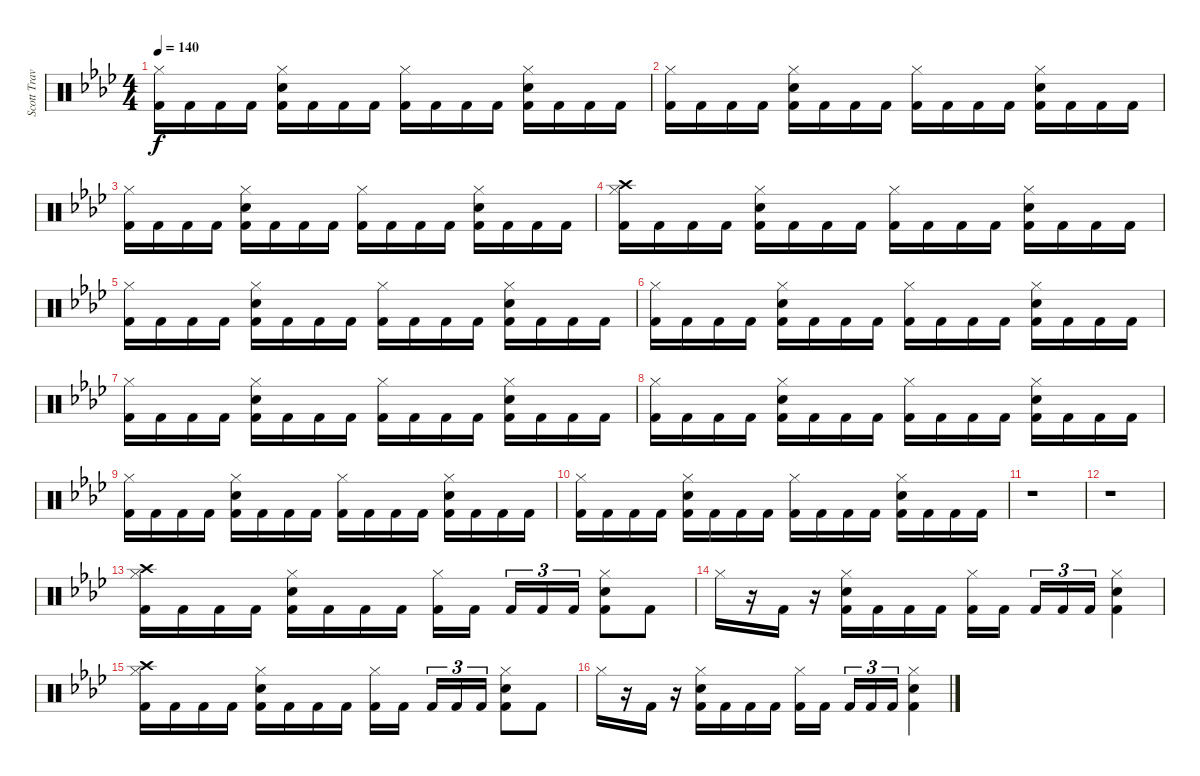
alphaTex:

\track ("Scott Travis" "Scott Trav") {instrument percussion}
\staff {score}
\articulation defaults
\ts (4 4)
\tempo 140
\clef neutral
\ks fminor
("Hi-Hat (closed)" "Kick (hit) 2").16{dy f} "Kick (hit) 2".16 "Kick (hit) 2".16 "Kick (hit) 2".16 ("Hi-Hat (closed)" "Electric Snare (hit)" "Kick (hit) 2").16 "Kick (hit) 2".16 "Kick (hit) 2".16 "Kick (hit) 2".16 ("Hi-Hat (closed)" "Kick (hit) 2").16 "Kick (hit) 2".16 "Kick (hit) 2".16 "Kick (hit) 2".16 ("Hi-Hat (closed)" "Electric Snare (hit)" "Kick (hit) 2").16 "Kick (hit) 2".16 "Kick (hit) 2".16 "Kick (hit) 2".16 |
("Hi-Hat (closed)" "Kick (hit) 2").16 "Kick (hit) 2".16 "Kick (hit) 2".16 "Kick (hit) 2".16 ("Hi-Hat (closed)" "Electric Snare (hit)" "Kick (hit) 2").16 "Kick (hit) 2".16 "Kick (hit) 2".16 "Kick (hit) 2".16 ("Hi-Hat (closed)" "Kick (hit) 2").16 "Kick (hit) 2".16 "Kick (hit) 2".16 "Kick (hit) 2".16 ("Hi-Hat (closed)" "Electric Snare (hit)" "Kick (hit) 2").16 "Kick (hit) 2".16 "Kick (hit) 2".16 "Kick (hit) 2".16 |
("Hi-Hat (closed)" "Kick (hit) 2").16 "Kick (hit) 2".16 "Kick (hit) 2".16 "Kick (hit) 2".16 ("Hi-Hat (closed)" "Electric Snare (hit)" "Kick (hit) 2").16 "Kick (hit) 2".16 "Kick (hit) 2".16 "Kick (hit) 2".16 ("Hi-Hat (closed)" "Kick (hit) 2").16 "Kick (hit) 2".16 "Kick (hit) 2".16 "Kick (hit) 2".16 ("Hi-Hat (closed)" "Electric Snare (hit)" "Kick (hit) 2").16 "Kick (hit) 2".16 "Kick (hit) 2".16 "Kick (hit) 2".16 |
("Crash high (hit)" "Hi-Hat (closed)" "Kick (hit) 2").16 "Kick (hit) 2".16 "Kick (hit) 2".16 "Kick (hit) 2".16 ("Hi-Hat (closed)" "Electric Snare (hit)" "Kick (hit) 2").16 "Kick (hit) 2".16 "Kick (hit) 2".16 "Kick (hit) 2".16 ("Hi-Hat (closed)" "Kick (hit) 2").16 "Kick (hit) 2".16 "Kick (hit) 2".16 "Kick (hit) 2".16 ("Hi-Hat (closed)" "Electric Snare (hit)" "Kick (hit) 2").16 "Kick (hit) 2".16 "Kick (hit) 2".16 "Kick (hit) 2".16 |
("Hi-Hat (closed)" "Kick (hit) 2").16 "Kick (hit) 2".16 "Kick (hit) 2".16 "Kick (hit) 2".16 ("Hi-Hat (closed)" "Electric Snare (hit)" "Kick (hit) 2").16 "Kick (hit) 2".16 "Kick (hit) 2".16 "Kick (hit) 2".16 ("Hi-Hat (closed)" "Kick (hit) 2").16 "Kick (hit) 2".16 "Kick (hit) 2".16 "Kick (hit) 2".16 ("Hi-Hat (closed)" "Electric Snare (hit)" "Kick (hit) 2").16 "Kick (hit) 2".16 "Kick (hit) 2".16 "Kick (hit) 2".16 |
("Hi-Hat (closed)" "Kick (hit) 2").16 "Kick (hit) 2".16 "Kick (hit) 2".16 "Kick (hit) 2".16 ("Hi-Hat (closed)" "Electric Snare (hit)" "Kick (hit) 2").16 "Kick (hit) 2".16 "Kick (hit) 2".16 "Kick (hit) 2".16 ("Hi-Hat (closed)" "Kick (hit) 2").16 "Kick (hit) 2".16 "Kick (hit) 2".16 "Kick (hit) 2".16 ("Hi-Hat (closed)" "Electric Snare (hit)" "Kick (hit) 2").16 "Kick (hit) 2".16 "Kick (hit) 2".16 "Kick (hit) 2".16 |
("Hi-Hat (closed)" "Kick (hit) 2").16 "Kick (hit) 2".16 "Kick (hit) 2".16 "Kick (hit) 2".16 ("Hi-Hat (closed)" "Electric Snare (hit)" "Kick (hit) 2").16 "Kick (hit) 2".16 "Kick (hit) 2".16 "Kick (hit) 2".16 ("Hi-Hat (closed)" "Kick (hit) 2").16 "Kick (hit) 2".16 "Kick (hit) 2".16 "Kick (hit) 2".16 ("Hi-Hat (closed)" "Electric Snare (hit)" "Kick (hit) 2").16 "Kick (hit) 2".16 "Kick (hit) 2".16 "Kick (hit) 2".16 |
("Hi-Hat (closed)" "Kick (hit) 2").16 "Kick (hit) 2".16 "Kick (hit) 2".16 "Kick (hit) 2".16 ("Hi-Hat (closed)" "Electric Snare (hit)" "Kick (hit) 2").16 "Kick (hit) 2".16 "Kick (hit) 2".16 "Kick (hit) 2".16 ("Hi-Hat (closed)" "Kick (hit) 2").16 "Kick (hit) 2".16 "Kick (hit) 2".16 "Kick (hit) 2".16 ("Hi-Hat (closed)" "Electric Snare (hit)" "Kick (hit) 2").16 "Kick (hit) 2".16 "Kick (hit) 2".16 "Kick (hit) 2".16 |
("Hi-Hat (closed)" "Kick (hit) 2").16 "Kick (hit) 2".16 "Kick (hit) 2".16 "Kick (hit) 2".16 ("Hi-Hat (closed)" "Electric Snare (hit)" "Kick (hit) 2").16 "Kick (hit) 2".16 "Kick (hit) 2".16 "Kick (hit) 2".16 ("Hi-Hat (closed)" "Kick (hit) 2").16 "Kick (hit) 2".16 "Kick (hit) 2".16 "Kick (hit) 2".16 ("Hi-Hat (closed)" "Electric Snare (hit)" "Kick (hit) 2").16 "Kick (hit) 2".16 "Kick (hit) 2".16 "Kick (hit) 2".16 |
("Hi-Hat (closed)" "Kick (hit) 2").16 "Kick (hit) 2".16 "Kick (hit) 2".16 "Kick (hit) 2".16 ("Hi-Hat (closed)" "Electric Snare (hit)" "Kick (hit) 2").16 "Kick (hit) 2".16 "Kick (hit) 2".16 "Kick (hit) 2".16 ("Hi-Hat (closed)" "Kick (hit) 2").16 "Kick (hit) 2".16 "Kick (hit) 2".16 "Kick (hit) 2".16 ("Hi-Hat (closed)" "Electric Snare (hit)" "Kick (hit) 2").16 "Kick (hit) 2".16 "Kick (hit) 2".16 "Kick (hit) 2".16 |
r.1 |
r.1 |
("Hi-Hat (closed)" "Crash high (hit)" "Kick (hit) 2").16 "Kick (hit) 2".16 "Kick (hit) 2".16 "Kick (hit) 2".16 ("Hi-Hat (closed)" "Electric Snare (hit)" "Kick (hit) 2").16 "Kick (hit) 2".16 "Kick (hit) 2".16 "Kick (hit) 2".16 ("Hi-Hat (closed)" "Kick (hit) 2").16 "Kick (hit) 2".16{beam splitsecondary} "Kick (hit) 2".16{tu (3 2)} "Kick (hit) 2".16{tu (3 2)} "Kick (hit) 2".16{tu (3 2)} ("Hi-Hat (closed)" "Electric Snare (hit)" "Kick (hit) 2").8 "Kick (hit) 2".8 |
"Hi-Hat (closed)".16 r.16 "Kick (hit) 2".16 r.16 ("Hi-Hat (closed)" "Electric Snare (hit)" "Kick (hit) 2").16 "Kick (hit) 2".16 "Kick (hit) 2".16 "Kick (hit) 2".16 ("Hi-Hat (closed)" "Kick (hit) 2").16 "Kick (hit) 2".16{beam splitsecondary} "Kick (hit) 2".16{tu (3 2)} "Kick (hit) 2".16{tu (3 2)} "Kick (hit) 2".16{tu (3 2)} ("Hi-Hat (closed)" "Electric Snare (hit)" "Kick (hit) 2").4 |
("Hi-Hat (closed)" "Crash high (hit)" "Kick (hit) 2").16 "Kick (hit) 2".16 "Kick (hit) 2".16 "Kick (hit) 2".16 ("Hi-Hat (closed)" "Electric Snare (hit)" "Kick (hit) 2").16 "Kick (hit) 2".16 "Kick (hit) 2".16 "Kick (hit) 2".16 ("Hi-Hat (closed)" "Kick (hit) 2").16 "Kick (hit) 2".16{beam splitsecondary} "Kick (hit) 2".16{tu (3 2)} "Kick (hit) 2".16{tu (3 2)} "Kick (hit) 2".16{tu (3 2)} ("Hi-Hat (closed)" "Electric Snare (hit)" "Kick (hit) 2").8 "Kick (hit) 2".8 |
"Hi-Hat (closed)".16 r.16 "Kick (hit) 2".16 r.16 ("Hi-Hat (closed)" "Electric Snare (hit)" "Kick (hit) 2").16 "Kick (hit) 2".16 "Kick (hit) 2".16 "Kick (hit) 2".16 ("Hi-Hat (closed)" "Kick (hit) 2").16 "Kick (hit) 2".16{beam splitsecondary} "Kick (hit) 2".16{tu (3 2)} "Kick (hit) 2".16{tu (3 2)} "Kick (hit) 2".16{tu (3 2)} ("Hi-Hat (closed)" "Electric Snare (hit)" "Kick (hit) 2").4
